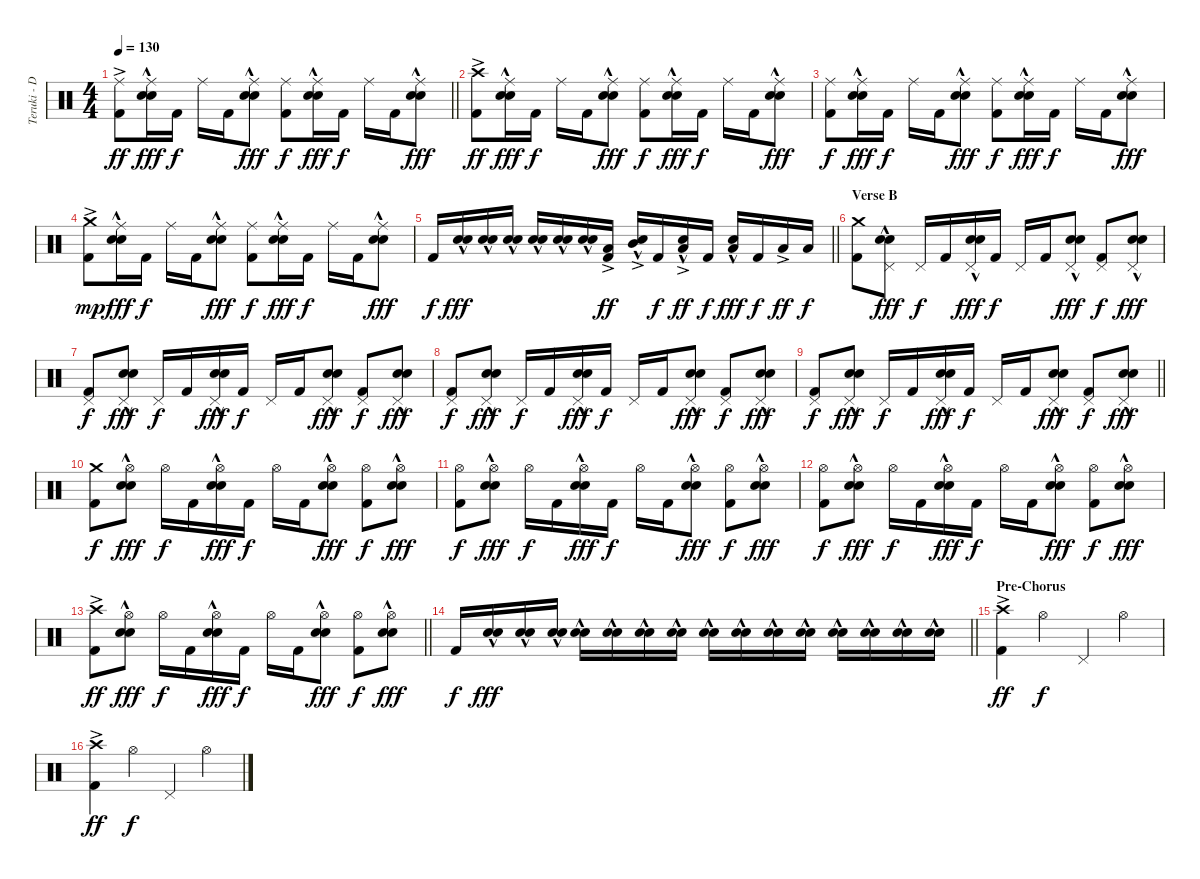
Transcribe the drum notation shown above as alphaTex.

\track ("Teruki - Drums" "Teruki - D") {instrument percussion}
\staff {score}
\articulation defaults
\ts (4 4)
\tempo 130
\clef neutral
\barLineRight lightlight
\ks c
("Ride (middle)"{ac} "Kick (hit) 2").8{dy ff} ("Ride (middle)" "Electric Snare (hit)"{hac} "Snare (hit) 2").16{dy fff} "Kick (hit) 2".16{dy f} "Ride (middle)".16 "Kick (hit) 2".16 ("Ride (middle)" "Electric Snare (hit)"{hac} "Snare (hit) 2").8{dy fff} ("Ride (middle)" "Kick (hit) 2").8{dy f} ("Ride (middle)" "Electric Snare (hit)"{hac} "Snare (hit) 2").16{dy fff} "Kick (hit) 2".16{dy f} "Ride (middle)".16 "Kick (hit) 2".16 ("Ride (middle)" "Electric Snare (hit)"{hac} "Snare (hit) 2").8{dy fff} |
("Crash high (hit)"{ac} "Kick (hit) 2").8{dy ff} ("Ride (middle)" "Electric Snare (hit)"{hac} "Snare (hit) 2").16{dy fff} "Kick (hit) 2".16{dy f} "Ride (middle)".16 "Kick (hit) 2".16 ("Ride (middle)" "Electric Snare (hit)"{hac} "Snare (hit) 2").8{dy fff} ("Ride (middle)" "Kick (hit) 2").8{dy f} ("Ride (middle)" "Electric Snare (hit)"{hac} "Snare (hit) 2").16{dy fff} "Kick (hit) 2".16{dy f} "Ride (middle)".16 "Kick (hit) 2".16 ("Ride (middle)" "Electric Snare (hit)"{hac} "Snare (hit) 2").8{dy fff} |
("Ride (middle)" "Kick (hit) 2").8{dy f} ("Ride (middle)" "Electric Snare (hit)"{hac} "Snare (hit) 2").16{dy fff} "Kick (hit) 2".16{dy f} "Ride (middle)".16 "Kick (hit) 2".16 ("Ride (middle)" "Electric Snare (hit)"{hac} "Snare (hit) 2").8{dy fff} ("Ride (middle)" "Kick (hit) 2").8{dy f} ("Ride (middle)" "Electric Snare (hit)"{hac} "Snare (hit) 2").16{dy fff} "Kick (hit) 2".16{dy f} "Ride (middle)".16 "Kick (hit) 2".16 ("Ride (middle)" "Electric Snare (hit)"{hac} "Snare (hit) 2").8{dy fff} |
("Crash medium (hit)"{ac} "Kick (hit) 2").8{dy mp} ("Ride (middle)" "Electric Snare (hit)"{hac} "Snare (hit) 2").16{dy fff} "Kick (hit) 2".16{dy f} "Ride (middle)".16 "Kick (hit) 2".16 ("Ride (middle)" "Electric Snare (hit)"{hac} "Snare (hit) 2").8{dy fff} ("Ride (middle)" "Kick (hit) 2").8{dy f} ("Ride (middle)" "Electric Snare (hit)"{hac} "Snare (hit) 2").16{dy fff} "Kick (hit) 2".16{dy f} "Ride (middle)".16 "Kick (hit) 2".16 ("Ride (middle)" "Electric Snare (hit)"{hac} "Snare (hit) 2").8{dy fff} |
\barLineRight lightlight "Kick (hit) 2".16{dy f}
("Electric Snare (hit)"{hac} "Snare (hit) 2").16{dy fff} ("Electric Snare (hit)"{hac} "Snare (hit) 2").16 ("Electric Snare (hit)"{hac} "Snare (hit) 2").16 ("Electric Snare (hit)"{hac} "Snare (hit) 2").16 ("Electric Snare (hit)"{hac} "Snare (hit) 2").16 ("Electric Snare (hit)"{hac} "Snare (hit) 2").16 ("Low Tom (hit)"{ac} "Kick (hit) 2").16{dy ff} ("Electric Snare (hit)"{hac} "Mid Tom (hit)"{ac}).16 "Kick (hit) 2".16{dy f} ("Electric Snare (hit)"{hac} "Low Tom (hit)"{ac}).16{dy ff} "Kick (hit) 2".16{dy f} ("Electric Snare (hit)"{hac} "Low Tom (hit)").16{dy fff} "Kick (hit) 2".16{dy f} "Low Tom (hit)"{ac}.16{dy ff} "Low Tom (hit)".16{dy f} |
\section ("" "Verse B")
("Crash medium (hit)" "Kick (hit) 2").8 ("Pedal Hi-Hat (hit)" "Electric Snare (hit)"{hac} "Snare (hit) 2").8{dy fff} "Pedal Hi-Hat (hit)".16{dy f} "Kick (hit) 2".16 ("Pedal Hi-Hat (hit)" "Electric Snare (hit)"{hac} "Snare (hit) 2").16{dy fff} "Kick (hit) 2".16{dy f} "Pedal Hi-Hat (hit)".16 "Kick (hit) 2".16 ("Pedal Hi-Hat (hit)" "Electric Snare (hit)"{hac} "Snare (hit) 2").8{dy fff} ("Pedal Hi-Hat (hit)" "Kick (hit) 2").8{dy f} ("Pedal Hi-Hat (hit)" "Electric Snare (hit)"{hac} "Snare (hit) 2").8{dy fff} |
("Pedal Hi-Hat (hit)" "Kick (hit) 2").8{dy f} ("Pedal Hi-Hat (hit)" "Electric Snare (hit)"{hac} "Snare (hit) 2").8{dy fff} "Pedal Hi-Hat (hit)".16{dy f} "Kick (hit) 2".16 ("Pedal Hi-Hat (hit)" "Electric Snare (hit)"{hac} "Snare (hit) 2").16{dy fff} "Kick (hit) 2".16{dy f} "Pedal Hi-Hat (hit)".16 "Kick (hit) 2".16 ("Pedal Hi-Hat (hit)" "Electric Snare (hit)"{hac} "Snare (hit) 2").8{dy fff} ("Pedal Hi-Hat (hit)" "Kick (hit) 2").8{dy f} ("Pedal Hi-Hat (hit)" "Electric Snare (hit)"{hac} "Snare (hit) 2").8{dy fff} |
("Pedal Hi-Hat (hit)" "Kick (hit) 2").8{dy f} ("Pedal Hi-Hat (hit)" "Electric Snare (hit)"{hac} "Snare (hit) 2").8{dy fff} "Pedal Hi-Hat (hit)".16{dy f} "Kick (hit) 2".16 ("Pedal Hi-Hat (hit)" "Electric Snare (hit)"{hac} "Snare (hit) 2").16{dy fff} "Kick (hit) 2".16{dy f} "Pedal Hi-Hat (hit)".16 "Kick (hit) 2".16 ("Pedal Hi-Hat (hit)" "Electric Snare (hit)"{hac} "Snare (hit) 2").8{dy fff} ("Pedal Hi-Hat (hit)" "Kick (hit) 2").8{dy f} ("Pedal Hi-Hat (hit)" "Electric Snare (hit)"{hac} "Snare (hit) 2").8{dy fff} |
\barLineRight lightlight
("Pedal Hi-Hat (hit)" "Kick (hit) 2").8{dy f} ("Pedal Hi-Hat (hit)" "Electric Snare (hit)"{hac} "Snare (hit) 2").8{dy fff} "Pedal Hi-Hat (hit)".16{dy f} "Kick (hit) 2".16 ("Pedal Hi-Hat (hit)" "Electric Snare (hit)"{hac} "Snare (hit) 2").16{dy fff} "Kick (hit) 2".16{dy f} "Pedal Hi-Hat (hit)".16 "Kick (hit) 2".16 ("Pedal Hi-Hat (hit)" "Electric Snare (hit)"{hac} "Snare (hit) 2").8{dy fff} ("Pedal Hi-Hat (hit)" "Kick (hit) 2").8{dy f} ("Pedal Hi-Hat (hit)" "Electric Snare (hit)"{hac} "Snare (hit) 2").8{dy fff} |
("Crash medium (hit)" "Kick (hit) 2").8{dy f} ("Hi-Hat (open)" "Electric Snare (hit)"{hac} "Snare (hit) 2").8{dy fff} "Hi-Hat (open)".16{dy f} "Kick (hit) 2".16 ("Hi-Hat (open)" "Electric Snare (hit)"{hac} "Snare (hit) 2").16{dy fff} "Kick (hit) 2".16{dy f} "Hi-Hat (open)".16 "Kick (hit) 2".16 ("Hi-Hat (open)" "Electric Snare (hit)"{hac} "Snare (hit) 2").8{dy fff} ("Hi-Hat (open)" "Kick (hit) 2").8{dy f} ("Hi-Hat (open)" "Electric Snare (hit)"{hac} "Snare (hit) 2").8{dy fff} |
("Hi-Hat (open)" "Kick (hit) 2").8{dy f} ("Hi-Hat (open)" "Electric Snare (hit)"{hac} "Snare (hit) 2").8{dy fff} "Hi-Hat (open)".16{dy f} "Kick (hit) 2".16 ("Hi-Hat (open)" "Electric Snare (hit)"{hac} "Snare (hit) 2").16{dy fff} "Kick (hit) 2".16{dy f} "Hi-Hat (open)".16 "Kick (hit) 2".16 ("Hi-Hat (open)" "Electric Snare (hit)"{hac} "Snare (hit) 2").8{dy fff} ("Hi-Hat (open)" "Kick (hit) 2").8{dy f} ("Hi-Hat (open)" "Electric Snare (hit)"{hac} "Snare (hit) 2").8{dy fff} |
("Hi-Hat (open)" "Kick (hit) 2").8{dy f} ("Hi-Hat (open)" "Electric Snare (hit)"{hac} "Snare (hit) 2").8{dy fff} "Hi-Hat (open)".16{dy f} "Kick (hit) 2".16 ("Hi-Hat (open)" "Electric Snare (hit)"{hac} "Snare (hit) 2").16{dy fff} "Kick (hit) 2".16{dy f} "Hi-Hat (open)".16 "Kick (hit) 2".16 ("Hi-Hat (open)" "Electric Snare (hit)"{hac} "Snare (hit) 2").8{dy fff} ("Hi-Hat (open)" "Kick (hit) 2").8{dy f} ("Hi-Hat (open)" "Electric Snare (hit)"{hac} "Snare (hit) 2").8{dy fff} |
\barLineRight lightlight
("Crash high (hit)"{ac} "Kick (hit) 2").8{dy ff} ("Hi-Hat (open)" "Electric Snare (hit)"{hac} "Snare (hit) 2").8{dy fff} "Hi-Hat (open)".16{dy f} "Kick (hit) 2".16 ("Hi-Hat (open)" "Electric Snare (hit)"{hac} "Snare (hit) 2").16{dy fff} "Kick (hit) 2".16{dy f} "Hi-Hat (open)".16 "Kick (hit) 2".16 ("Hi-Hat (open)" "Electric Snare (hit)"{hac} "Snare (hit) 2").8{dy fff} ("Hi-Hat (open)" "Kick (hit) 2").8{dy f} ("Hi-Hat (open)" "Electric Snare (hit)"{hac} "Snare (hit) 2").8{dy fff} |
\barLineRight lightlight "Kick (hit) 2".16{dy f}
("Electric Snare (hit)"{hac} "Snare (hit) 2").16{dy fff} ("Electric Snare (hit)"{hac} "Snare (hit) 2").16 ("Electric Snare (hit)"{hac} "Snare (hit) 2").16 ("Electric Snare (hit)"{hac} "Snare (hit) 2").16 ("Electric Snare (hit)"{hac} "Snare (hit) 2").16 ("Electric Snare (hit)"{hac} "Snare (hit) 2").16 ("Electric Snare (hit)"{hac} "Snare (hit) 2").16 ("Electric Snare (hit)"{hac} "Snare (hit) 2").16 ("Electric Snare (hit)"{hac} "Snare (hit) 2").16 ("Electric Snare (hit)"{hac} "Snare (hit) 2").16 ("Electric Snare (hit)"{hac} "Snare (hit) 2").16 ("Electric Snare (hit)"{hac} "Snare (hit) 2").16 ("Electric Snare (hit)"{hac} "Snare (hit) 2").16 ("Electric Snare (hit)"{hac} "Snare (hit) 2").16 ("Electric Snare (hit)"{hac} "Snare (hit) 2").16 |
\section ("" "Pre-Chorus")
("Crash high (hit)"{ac} "Kick (hit) 2").4{dy ff} "Hi-Hat (open)".4{dy f} "Pedal Hi-Hat (hit)".4 "Hi-Hat (open)".4 |
("Crash high (hit)"{ac} "Kick (hit) 2").4{dy ff} "Hi-Hat (open)".4{dy f} "Pedal Hi-Hat (hit)".4 "Hi-Hat (open)".4
